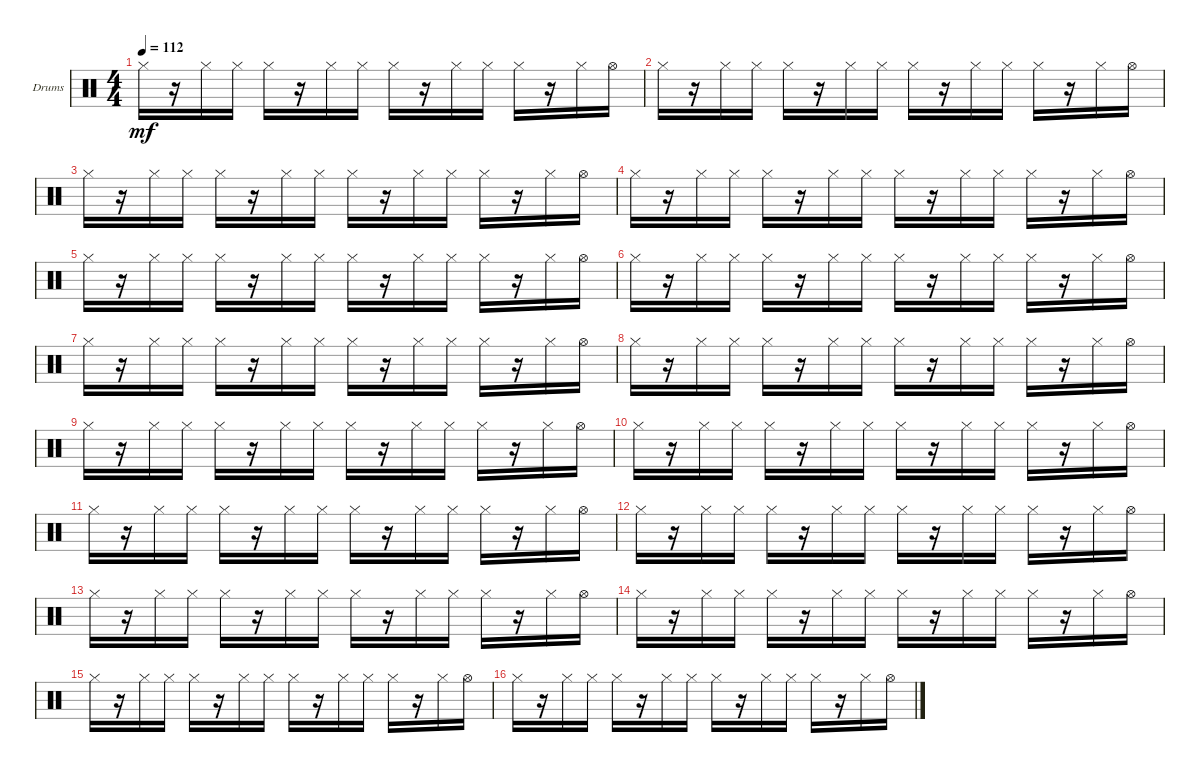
\bracketExtendMode groupsimilarinstruments
\firstSystemTrackNameOrientation horizontal
\otherSystemsTrackNameOrientation horizontal
\track ("hihat" "Drums") {instrument percussion}
\staff {score}
\articulation defaults
\ts (4 4)
\tempo 112
\clef neutral
\ks c "Hi-Hat (closed)".16{dy mf}
r.16 "Hi-Hat (closed)".16 "Hi-Hat (closed)".16 "Hi-Hat (closed)".16 r.16 "Hi-Hat (closed)".16 "Hi-Hat (closed)".16 "Hi-Hat (closed)".16 r.16 "Hi-Hat (closed)".16 "Hi-Hat (closed)".16 "Hi-Hat (closed)".16 r.16 "Hi-Hat (closed)".16 "Hi-Hat (open)".16 |
"Hi-Hat (closed)".16 r.16 "Hi-Hat (closed)".16 "Hi-Hat (closed)".16 "Hi-Hat (closed)".16 r.16 "Hi-Hat (closed)".16 "Hi-Hat (closed)".16 "Hi-Hat (closed)".16 r.16 "Hi-Hat (closed)".16 "Hi-Hat (closed)".16 "Hi-Hat (closed)".16 r.16 "Hi-Hat (closed)".16 "Hi-Hat (open)".16 |
"Hi-Hat (closed)".16 r.16 "Hi-Hat (closed)".16 "Hi-Hat (closed)".16 "Hi-Hat (closed)".16 r.16 "Hi-Hat (closed)".16 "Hi-Hat (closed)".16 "Hi-Hat (closed)".16 r.16 "Hi-Hat (closed)".16 "Hi-Hat (closed)".16 "Hi-Hat (closed)".16 r.16 "Hi-Hat (closed)".16 "Hi-Hat (open)".16 |
"Hi-Hat (closed)".16 r.16 "Hi-Hat (closed)".16 "Hi-Hat (closed)".16 "Hi-Hat (closed)".16 r.16 "Hi-Hat (closed)".16 "Hi-Hat (closed)".16 "Hi-Hat (closed)".16 r.16 "Hi-Hat (closed)".16 "Hi-Hat (closed)".16 "Hi-Hat (closed)".16 r.16 "Hi-Hat (closed)".16 "Hi-Hat (open)".16 |
"Hi-Hat (closed)".16 r.16 "Hi-Hat (closed)".16 "Hi-Hat (closed)".16 "Hi-Hat (closed)".16 r.16 "Hi-Hat (closed)".16 "Hi-Hat (closed)".16 "Hi-Hat (closed)".16 r.16 "Hi-Hat (closed)".16 "Hi-Hat (closed)".16 "Hi-Hat (closed)".16 r.16 "Hi-Hat (closed)".16 "Hi-Hat (open)".16 |
"Hi-Hat (closed)".16 r.16 "Hi-Hat (closed)".16 "Hi-Hat (closed)".16 "Hi-Hat (closed)".16 r.16 "Hi-Hat (closed)".16 "Hi-Hat (closed)".16 "Hi-Hat (closed)".16 r.16 "Hi-Hat (closed)".16 "Hi-Hat (closed)".16 "Hi-Hat (closed)".16 r.16 "Hi-Hat (closed)".16 "Hi-Hat (open)".16 |
"Hi-Hat (closed)".16 r.16 "Hi-Hat (closed)".16 "Hi-Hat (closed)".16 "Hi-Hat (closed)".16 r.16 "Hi-Hat (closed)".16 "Hi-Hat (closed)".16 "Hi-Hat (closed)".16 r.16 "Hi-Hat (closed)".16 "Hi-Hat (closed)".16 "Hi-Hat (closed)".16 r.16 "Hi-Hat (closed)".16 "Hi-Hat (open)".16 |
"Hi-Hat (closed)".16 r.16 "Hi-Hat (closed)".16 "Hi-Hat (closed)".16 "Hi-Hat (closed)".16 r.16 "Hi-Hat (closed)".16 "Hi-Hat (closed)".16 "Hi-Hat (closed)".16 r.16 "Hi-Hat (closed)".16 "Hi-Hat (closed)".16 "Hi-Hat (closed)".16 r.16 "Hi-Hat (closed)".16 "Hi-Hat (open)".16 |
"Hi-Hat (closed)".16 r.16 "Hi-Hat (closed)".16 "Hi-Hat (closed)".16 "Hi-Hat (closed)".16 r.16 "Hi-Hat (closed)".16 "Hi-Hat (closed)".16 "Hi-Hat (closed)".16 r.16 "Hi-Hat (closed)".16 "Hi-Hat (closed)".16 "Hi-Hat (closed)".16 r.16 "Hi-Hat (closed)".16 "Hi-Hat (open)".16 |
"Hi-Hat (closed)".16 r.16 "Hi-Hat (closed)".16 "Hi-Hat (closed)".16 "Hi-Hat (closed)".16 r.16 "Hi-Hat (closed)".16 "Hi-Hat (closed)".16 "Hi-Hat (closed)".16 r.16 "Hi-Hat (closed)".16 "Hi-Hat (closed)".16 "Hi-Hat (closed)".16 r.16 "Hi-Hat (closed)".16 "Hi-Hat (open)".16 |
"Hi-Hat (closed)".16 r.16 "Hi-Hat (closed)".16 "Hi-Hat (closed)".16 "Hi-Hat (closed)".16 r.16 "Hi-Hat (closed)".16 "Hi-Hat (closed)".16 "Hi-Hat (closed)".16 r.16 "Hi-Hat (closed)".16 "Hi-Hat (closed)".16 "Hi-Hat (closed)".16 r.16 "Hi-Hat (closed)".16 "Hi-Hat (open)".16 |
"Hi-Hat (closed)".16 r.16 "Hi-Hat (closed)".16 "Hi-Hat (closed)".16 "Hi-Hat (closed)".16 r.16 "Hi-Hat (closed)".16 "Hi-Hat (closed)".16 "Hi-Hat (closed)".16 r.16 "Hi-Hat (closed)".16 "Hi-Hat (closed)".16 "Hi-Hat (closed)".16 r.16 "Hi-Hat (closed)".16 "Hi-Hat (open)".16 |
"Hi-Hat (closed)".16 r.16 "Hi-Hat (closed)".16 "Hi-Hat (closed)".16 "Hi-Hat (closed)".16 r.16 "Hi-Hat (closed)".16 "Hi-Hat (closed)".16 "Hi-Hat (closed)".16 r.16 "Hi-Hat (closed)".16 "Hi-Hat (closed)".16 "Hi-Hat (closed)".16 r.16 "Hi-Hat (closed)".16 "Hi-Hat (open)".16 |
"Hi-Hat (closed)".16 r.16 "Hi-Hat (closed)".16 "Hi-Hat (closed)".16 "Hi-Hat (closed)".16 r.16 "Hi-Hat (closed)".16 "Hi-Hat (closed)".16 "Hi-Hat (closed)".16 r.16 "Hi-Hat (closed)".16 "Hi-Hat (closed)".16 "Hi-Hat (closed)".16 r.16 "Hi-Hat (closed)".16 "Hi-Hat (open)".16 |
"Hi-Hat (closed)".16 r.16 "Hi-Hat (closed)".16 "Hi-Hat (closed)".16 "Hi-Hat (closed)".16 r.16 "Hi-Hat (closed)".16 "Hi-Hat (closed)".16 "Hi-Hat (closed)".16 r.16 "Hi-Hat (closed)".16 "Hi-Hat (closed)".16 "Hi-Hat (closed)".16 r.16 "Hi-Hat (closed)".16 "Hi-Hat (open)".16 |
"Hi-Hat (closed)".16 r.16 "Hi-Hat (closed)".16 "Hi-Hat (closed)".16 "Hi-Hat (closed)".16 r.16 "Hi-Hat (closed)".16 "Hi-Hat (closed)".16 "Hi-Hat (closed)".16 r.16 "Hi-Hat (closed)".16 "Hi-Hat (closed)".16 "Hi-Hat (closed)".16 r.16 "Hi-Hat (closed)".16 "Hi-Hat (open)".16
